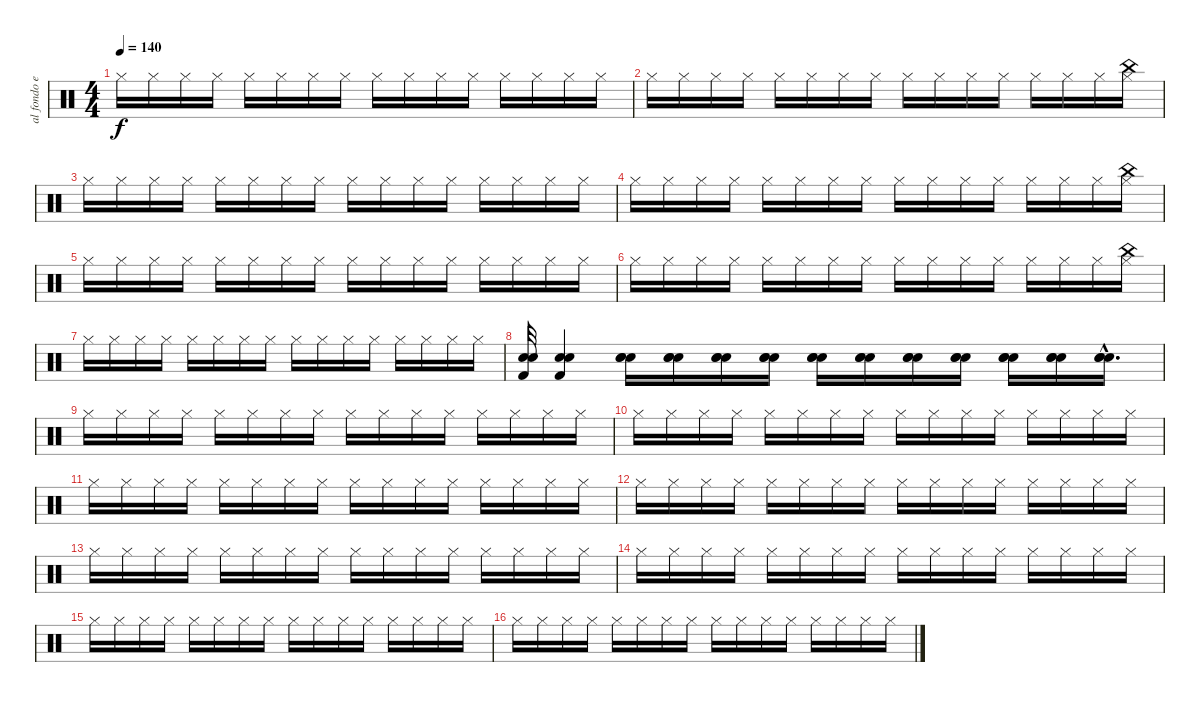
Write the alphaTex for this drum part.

\track ("al fondo en la bateria Mr Pedro Andreu" "al fondo e") {instrument percussion}
\staff {score}
\articulation defaults
\ts (4 4)
\tempo 140
\clef neutral
\ks c "Hi-Hat (closed)".16{dy f} "Hi-Hat (closed)".16 "Hi-Hat (closed)".16 "Hi-Hat (closed)".16 "Hi-Hat (closed)".16 "Hi-Hat (closed)".16 "Hi-Hat (closed)".16 "Hi-Hat (closed)".16 "Hi-Hat (closed)".16 "Hi-Hat (closed)".16 "Hi-Hat (closed)".16 "Hi-Hat (closed)".16 "Hi-Hat (closed)".16 "Hi-Hat (closed)".16 "Hi-Hat (closed)".16 "Hi-Hat (closed)".16
|
"Hi-Hat (closed)".16 "Hi-Hat (closed)".16 "Hi-Hat (closed)".16 "Hi-Hat (closed)".16 "Hi-Hat (closed)".16 "Hi-Hat (closed)".16 "Hi-Hat (closed)".16 "Hi-Hat (closed)".16 "Hi-Hat (closed)".16 "Hi-Hat (closed)".16 "Hi-Hat (closed)".16 "Hi-Hat (closed)".16 "Hi-Hat (closed)".16 "Hi-Hat (closed)".16 "Hi-Hat (closed)".16 ("Hi-Hat (closed)" "China (hit)").16 |
"Hi-Hat (closed)".16 "Hi-Hat (closed)".16 "Hi-Hat (closed)".16 "Hi-Hat (closed)".16 "Hi-Hat (closed)".16 "Hi-Hat (closed)".16 "Hi-Hat (closed)".16 "Hi-Hat (closed)".16 "Hi-Hat (closed)".16 "Hi-Hat (closed)".16 "Hi-Hat (closed)".16 "Hi-Hat (closed)".16 "Hi-Hat (closed)".16 "Hi-Hat (closed)".16 "Hi-Hat (closed)".16 "Hi-Hat (closed)".16 |
"Hi-Hat (closed)".16 "Hi-Hat (closed)".16 "Hi-Hat (closed)".16 "Hi-Hat (closed)".16 "Hi-Hat (closed)".16 "Hi-Hat (closed)".16 "Hi-Hat (closed)".16 "Hi-Hat (closed)".16 "Hi-Hat (closed)".16 "Hi-Hat (closed)".16 "Hi-Hat (closed)".16 "Hi-Hat (closed)".16 "Hi-Hat (closed)".16 "Hi-Hat (closed)".16 "Hi-Hat (closed)".16 ("Hi-Hat (closed)" "China (hit)").16 |
"Hi-Hat (closed)".16 "Hi-Hat (closed)".16 "Hi-Hat (closed)".16 "Hi-Hat (closed)".16 "Hi-Hat (closed)".16 "Hi-Hat (closed)".16 "Hi-Hat (closed)".16 "Hi-Hat (closed)".16 "Hi-Hat (closed)".16 "Hi-Hat (closed)".16 "Hi-Hat (closed)".16 "Hi-Hat (closed)".16 "Hi-Hat (closed)".16 "Hi-Hat (closed)".16 "Hi-Hat (closed)".16 "Hi-Hat (closed)".16 |
"Hi-Hat (closed)".16 "Hi-Hat (closed)".16 "Hi-Hat (closed)".16 "Hi-Hat (closed)".16 "Hi-Hat (closed)".16 "Hi-Hat (closed)".16 "Hi-Hat (closed)".16 "Hi-Hat (closed)".16 "Hi-Hat (closed)".16 "Hi-Hat (closed)".16 "Hi-Hat (closed)".16 "Hi-Hat (closed)".16 "Hi-Hat (closed)".16 "Hi-Hat (closed)".16 "Hi-Hat (closed)".16 ("Hi-Hat (closed)" "China (hit)").16 |
"Hi-Hat (closed)".16 "Hi-Hat (closed)".16 "Hi-Hat (closed)".16 "Hi-Hat (closed)".16 "Hi-Hat (closed)".16 "Hi-Hat (closed)".16 "Hi-Hat (closed)".16 "Hi-Hat (closed)".16 "Hi-Hat (closed)".16 "Hi-Hat (closed)".16 "Hi-Hat (closed)".16 "Hi-Hat (closed)".16 "Hi-Hat (closed)".16 "Hi-Hat (closed)".16 "Hi-Hat (closed)".16 "Hi-Hat (closed)".16 |
("Snare (hit) 2" "Snare (hit) 2" "Kick (hit) 2").32 ("Snare (hit) 2" "Snare (hit) 2" "Kick (hit) 2").4 ("Snare (hit) 2" "Snare (hit) 2" "Snare (hit) 2").16 ("Snare (hit) 2" "Snare (hit) 2" "Snare (hit) 2").16 ("Snare (hit) 2" "Snare (hit) 2" "Snare (hit) 2").16 ("Snare (hit) 2" "Snare (hit) 2" "Snare (hit) 2").16 ("Snare (hit) 2" "Snare (hit) 2" "Snare (hit) 2").16 ("Snare (hit) 2" "Snare (hit) 2" "Snare (hit) 2").16 ("Snare (hit) 2" "Snare (hit) 2" "Snare (hit) 2").16 ("Snare (hit) 2" "Snare (hit) 2" "Snare (hit) 2").16 ("Snare (hit) 2" "Snare (hit) 2" "Snare (hit) 2").16 ("Snare (hit) 2" "Snare (hit) 2" "Snare (hit) 2").16 ("Snare (hit) 2"{hac} "Snare (hit) 2"{hac} "Snare (hit) 2"{hac}).16{d} |
"Hi-Hat (closed)".16 "Hi-Hat (closed)".16 "Hi-Hat (closed)".16 "Hi-Hat (closed)".16 "Hi-Hat (closed)".16 "Hi-Hat (closed)".16 "Hi-Hat (closed)".16 "Hi-Hat (closed)".16 "Hi-Hat (closed)".16 "Hi-Hat (closed)".16 "Hi-Hat (closed)".16 "Hi-Hat (closed)".16 "Hi-Hat (closed)".16 "Hi-Hat (closed)".16 "Hi-Hat (closed)".16 "Hi-Hat (closed)".16 |
"Hi-Hat (closed)".16 "Hi-Hat (closed)".16 "Hi-Hat (closed)".16 "Hi-Hat (closed)".16 "Hi-Hat (closed)".16 "Hi-Hat (closed)".16 "Hi-Hat (closed)".16 "Hi-Hat (closed)".16 "Hi-Hat (closed)".16 "Hi-Hat (closed)".16 "Hi-Hat (closed)".16 "Hi-Hat (closed)".16 "Hi-Hat (closed)".16 "Hi-Hat (closed)".16 "Hi-Hat (closed)".16 "Hi-Hat (closed)".16 |
"Hi-Hat (closed)".16 "Hi-Hat (closed)".16 "Hi-Hat (closed)".16 "Hi-Hat (closed)".16 "Hi-Hat (closed)".16 "Hi-Hat (closed)".16 "Hi-Hat (closed)".16 "Hi-Hat (closed)".16 "Hi-Hat (closed)".16 "Hi-Hat (closed)".16 "Hi-Hat (closed)".16 "Hi-Hat (closed)".16 "Hi-Hat (closed)".16 "Hi-Hat (closed)".16 "Hi-Hat (closed)".16 "Hi-Hat (closed)".16 |
"Hi-Hat (closed)".16 "Hi-Hat (closed)".16 "Hi-Hat (closed)".16 "Hi-Hat (closed)".16 "Hi-Hat (closed)".16 "Hi-Hat (closed)".16 "Hi-Hat (closed)".16 "Hi-Hat (closed)".16 "Hi-Hat (closed)".16 "Hi-Hat (closed)".16 "Hi-Hat (closed)".16 "Hi-Hat (closed)".16 "Hi-Hat (closed)".16 "Hi-Hat (closed)".16 "Hi-Hat (closed)".16 "Hi-Hat (closed)".16 |
"Hi-Hat (closed)".16 "Hi-Hat (closed)".16 "Hi-Hat (closed)".16 "Hi-Hat (closed)".16 "Hi-Hat (closed)".16 "Hi-Hat (closed)".16 "Hi-Hat (closed)".16 "Hi-Hat (closed)".16 "Hi-Hat (closed)".16 "Hi-Hat (closed)".16 "Hi-Hat (closed)".16 "Hi-Hat (closed)".16 "Hi-Hat (closed)".16 "Hi-Hat (closed)".16 "Hi-Hat (closed)".16 "Hi-Hat (closed)".16 |
"Hi-Hat (closed)".16 "Hi-Hat (closed)".16 "Hi-Hat (closed)".16 "Hi-Hat (closed)".16 "Hi-Hat (closed)".16 "Hi-Hat (closed)".16 "Hi-Hat (closed)".16 "Hi-Hat (closed)".16 "Hi-Hat (closed)".16 "Hi-Hat (closed)".16 "Hi-Hat (closed)".16 "Hi-Hat (closed)".16 "Hi-Hat (closed)".16 "Hi-Hat (closed)".16 "Hi-Hat (closed)".16 "Hi-Hat (closed)".16 |
"Hi-Hat (closed)".16 "Hi-Hat (closed)".16 "Hi-Hat (closed)".16 "Hi-Hat (closed)".16 "Hi-Hat (closed)".16 "Hi-Hat (closed)".16 "Hi-Hat (closed)".16 "Hi-Hat (closed)".16 "Hi-Hat (closed)".16 "Hi-Hat (closed)".16 "Hi-Hat (closed)".16 "Hi-Hat (closed)".16 "Hi-Hat (closed)".16 "Hi-Hat (closed)".16 "Hi-Hat (closed)".16 "Hi-Hat (closed)".16 |
"Hi-Hat (closed)".16 "Hi-Hat (closed)".16 "Hi-Hat (closed)".16 "Hi-Hat (closed)".16 "Hi-Hat (closed)".16 "Hi-Hat (closed)".16 "Hi-Hat (closed)".16 "Hi-Hat (closed)".16 "Hi-Hat (closed)".16 "Hi-Hat (closed)".16 "Hi-Hat (closed)".16 "Hi-Hat (closed)".16 "Hi-Hat (closed)".16 "Hi-Hat (closed)".16 "Hi-Hat (closed)".16 "Hi-Hat (closed)".16
